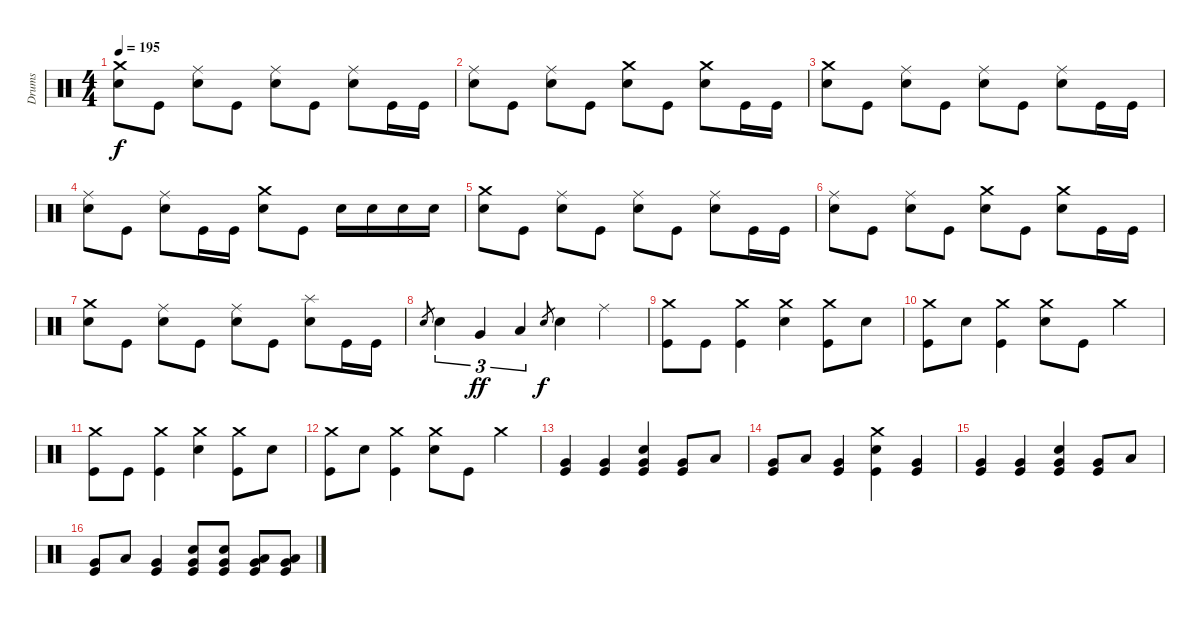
\track ("Drums" "Drums") {instrument percussion}
\staff {score}
\articulation defaults
\ts (4 4)
\tempo 195
\clef neutral
\ks c
("Crash medium (hit)" "Electric Snare (hit)").8{dy f} "Kick (hit)".8 ("Ride (middle)" "Electric Snare (hit)").8 "Kick (hit)".8 ("Ride (middle)" "Electric Snare (hit)").8 "Kick (hit)".8 ("Ride (middle)" "Electric Snare (hit)").8 "Kick (hit)".16 "Kick (hit)".16 |
("Ride (middle)" "Electric Snare (hit)").8 "Kick (hit)".8 ("Ride (middle)" "Electric Snare (hit)").8 "Kick (hit)".8 ("Crash medium (hit)" "Electric Snare (hit)").8 "Kick (hit)".8 ("Crash medium (hit)" "Electric Snare (hit)").8 "Kick (hit)".16 "Kick (hit)".16 |
("Crash medium (hit)" "Electric Snare (hit)").8 "Kick (hit)".8 ("Ride (middle)" "Electric Snare (hit)").8 "Kick (hit)".8 ("Ride (middle)" "Electric Snare (hit)").8 "Kick (hit)".8 ("Ride (middle)" "Electric Snare (hit)").8 "Kick (hit)".16 "Kick (hit)".16 |
("Ride (middle)" "Electric Snare (hit)").8 "Kick (hit)".8 ("Ride (middle)" "Electric Snare (hit)").8 "Kick (hit)".16 "Kick (hit)".16 ("Crash medium (hit)" "Electric Snare (hit)").8 "Kick (hit)".8 "Electric Snare (hit)".16 "Electric Snare (hit)".16 "Electric Snare (hit)".16 "Electric Snare (hit)".16 |
("Crash medium (hit)" "Electric Snare (hit)").8 "Kick (hit)".8 ("Ride (middle)" "Electric Snare (hit)").8 "Kick (hit)".8 ("Ride (middle)" "Electric Snare (hit)").8 "Kick (hit)".8 ("Ride (middle)" "Electric Snare (hit)").8 "Kick (hit)".16 "Kick (hit)".16 |
("Ride (middle)" "Electric Snare (hit)").8 "Kick (hit)".8 ("Ride (middle)" "Electric Snare (hit)").8 "Kick (hit)".8 ("Crash medium (hit)" "Electric Snare (hit)").8 "Kick (hit)".8 ("Crash medium (hit)" "Electric Snare (hit)").8 "Kick (hit)".16 "Kick (hit)".16 |
("Crash medium (hit)" "Electric Snare (hit)").8 "Kick (hit)".8 ("Ride (middle)" "Electric Snare (hit)").8 "Kick (hit)".8 ("Ride (middle)" "Electric Snare (hit)").8 "Kick (hit)".8 ("Splash (hit)" "Electric Snare (hit)").8 "Kick (hit)".16 "Kick (hit)".16 |
"Electric Snare (hit)".8{gr} "Electric Snare (hit)".4{tu (3 2)} "Very Low Tom (hit)".4{tu (3 2) dy ff} "Low Floor Tom (hit)".4{tu (3 2)} "Electric Snare (hit)".8{gr dy f} "Electric Snare (hit)".4 "Ride (middle)".4 |
("Crash medium (hit)" "Kick (hit)").8 "Kick (hit)".8 ("Crash medium (hit)" "Kick (hit)").4 ("Crash medium (hit)" "Electric Snare (hit)").4 ("Crash medium (hit)" "Kick (hit)").8 "Electric Snare (hit)".8 |
("Crash medium (hit)" "Kick (hit)").8 "Electric Snare (hit)".8 ("Crash medium (hit)" "Kick (hit)").4 ("Crash medium (hit)" "Electric Snare (hit)").8 "Kick (hit)".8 "Crash medium (hit)".4 |
("Crash medium (hit)" "Kick (hit)").8 "Kick (hit)".8 ("Crash medium (hit)" "Kick (hit)").4 ("Crash medium (hit)" "Electric Snare (hit)").4 ("Crash medium (hit)" "Kick (hit)").8 "Electric Snare (hit)".8 |
("Crash medium (hit)" "Kick (hit)").8 "Electric Snare (hit)".8 ("Crash medium (hit)" "Kick (hit)").4 ("Crash medium (hit)" "Electric Snare (hit)").8 "Kick (hit)".8 "Crash medium (hit)".4 |
("Very Low Tom (hit)" "Kick (hit)").4 ("Very Low Tom (hit)" "Kick (hit)").4 ("Very Low Tom (hit)" "Electric Snare (hit)" "Kick (hit)").4 ("Very Low Tom (hit)" "Kick (hit)").8 "Low Tom (hit)".8 |
("Very Low Tom (hit)" "Kick (hit)").8 "Low Tom (hit)".8 ("Very Low Tom (hit)" "Kick (hit)").4 ("Crash medium (hit)" "Electric Snare (hit)" "Kick (hit)").4 ("Very Low Tom (hit)" "Kick (hit)").4 |
("Very Low Tom (hit)" "Kick (hit)").4 ("Very Low Tom (hit)" "Kick (hit)").4 ("Very Low Tom (hit)" "Electric Snare (hit)" "Kick (hit)").4 ("Very Low Tom (hit)" "Kick (hit)").8 "Low Tom (hit)".8 |
("Very Low Tom (hit)" "Kick (hit)").8 "Low Tom (hit)".8 ("Very Low Tom (hit)" "Kick (hit)").4 ("Very Low Tom (hit)" "Electric Snare (hit)" "Kick (hit)").8 ("Very Low Tom (hit)" "Electric Snare (hit)" "Kick (hit)").8 ("Very Low Tom (hit)" "Low Floor Tom (hit)" "Kick (hit)").8 ("Very Low Tom (hit)" "Low Floor Tom (hit)" "Kick (hit)").8
